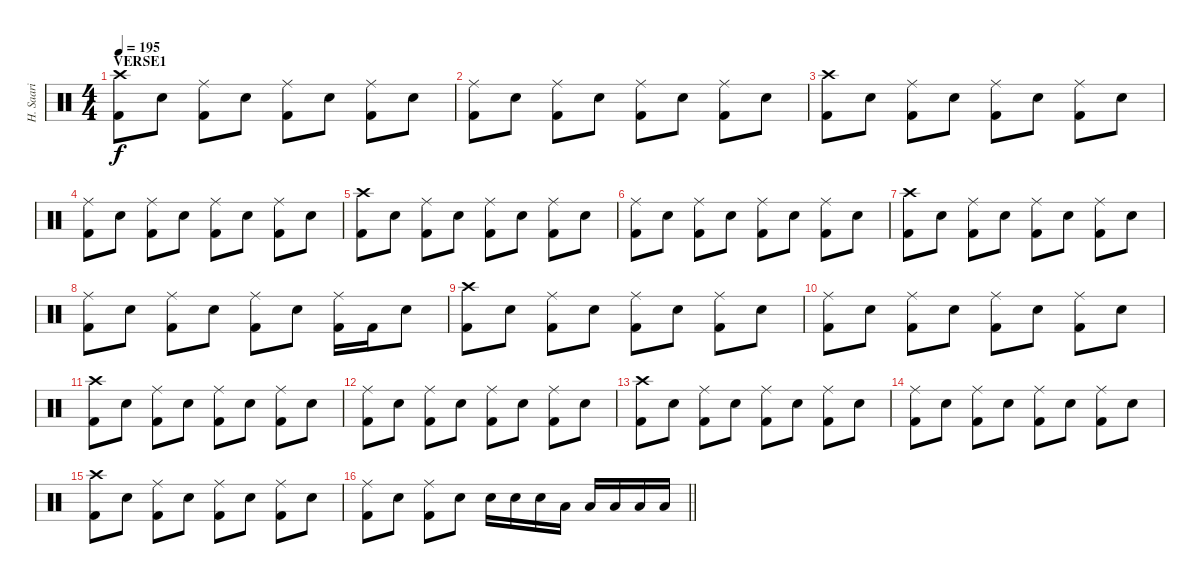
\track ("H. Saari" "H. Saari") {instrument percussion}
\staff {score}
\articulation defaults
\ts (4 4)
\section ("" "VERSE1")
\tempo 195
\clef neutral
\ks c
("Crash high (hit)" "Kick (hit) 2").8{dy f} "Electric Snare (hit)".8 ("Ride (middle)" "Kick (hit) 2").8 "Electric Snare (hit)".8 ("Ride (middle)" "Kick (hit) 2").8 "Electric Snare (hit)".8 ("Ride (middle)" "Kick (hit) 2").8 "Electric Snare (hit)".8 |
("Ride (middle)" "Kick (hit) 2").8 "Electric Snare (hit)".8 ("Ride (middle)" "Kick (hit) 2").8 "Electric Snare (hit)".8 ("Ride (middle)" "Kick (hit) 2").8 "Electric Snare (hit)".8 ("Ride (middle)" "Kick (hit) 2").8 "Electric Snare (hit)".8 |
("Crash high (hit)" "Kick (hit) 2").8 "Electric Snare (hit)".8 ("Ride (middle)" "Kick (hit) 2").8 "Electric Snare (hit)".8 ("Ride (middle)" "Kick (hit) 2").8 "Electric Snare (hit)".8 ("Ride (middle)" "Kick (hit) 2").8 "Electric Snare (hit)".8 |
("Ride (middle)" "Kick (hit) 2").8 "Electric Snare (hit)".8 ("Ride (middle)" "Kick (hit) 2").8 "Electric Snare (hit)".8 ("Ride (middle)" "Kick (hit) 2").8 "Electric Snare (hit)".8 ("Ride (middle)" "Kick (hit) 2").8 "Electric Snare (hit)".8 |
("Crash high (hit)" "Kick (hit) 2").8 "Electric Snare (hit)".8 ("Ride (middle)" "Kick (hit) 2").8 "Electric Snare (hit)".8 ("Ride (middle)" "Kick (hit) 2").8 "Electric Snare (hit)".8 ("Ride (middle)" "Kick (hit) 2").8 "Electric Snare (hit)".8 |
("Ride (middle)" "Kick (hit) 2").8 "Electric Snare (hit)".8 ("Ride (middle)" "Kick (hit) 2").8 "Electric Snare (hit)".8 ("Ride (middle)" "Kick (hit) 2").8 "Electric Snare (hit)".8 ("Ride (middle)" "Kick (hit) 2").8 "Electric Snare (hit)".8 |
("Crash high (hit)" "Kick (hit) 2").8 "Electric Snare (hit)".8 ("Ride (middle)" "Kick (hit) 2").8 "Electric Snare (hit)".8 ("Ride (middle)" "Kick (hit) 2").8 "Electric Snare (hit)".8 ("Ride (middle)" "Kick (hit) 2").8 "Electric Snare (hit)".8 |
("Ride (middle)" "Kick (hit) 2").8 "Electric Snare (hit)".8 ("Ride (middle)" "Kick (hit) 2").8 "Electric Snare (hit)".8 ("Ride (middle)" "Kick (hit) 2").8 "Electric Snare (hit)".8 ("Ride (middle)" "Kick (hit) 2").16 "Kick (hit) 2".16 "Electric Snare (hit)".8 |
("Crash high (hit)" "Kick (hit) 2").8 "Electric Snare (hit)".8 ("Ride (middle)" "Kick (hit) 2").8 "Electric Snare (hit)".8 ("Ride (middle)" "Kick (hit) 2").8 "Electric Snare (hit)".8 ("Ride (middle)" "Kick (hit) 2").8 "Electric Snare (hit)".8 |
("Ride (middle)" "Kick (hit) 2").8 "Electric Snare (hit)".8 ("Ride (middle)" "Kick (hit) 2").8 "Electric Snare (hit)".8 ("Ride (middle)" "Kick (hit) 2").8 "Electric Snare (hit)".8 ("Ride (middle)" "Kick (hit) 2").8 "Electric Snare (hit)".8 |
("Crash high (hit)" "Kick (hit) 2").8 "Electric Snare (hit)".8 ("Ride (middle)" "Kick (hit) 2").8 "Electric Snare (hit)".8 ("Ride (middle)" "Kick (hit) 2").8 "Electric Snare (hit)".8 ("Ride (middle)" "Kick (hit) 2").8 "Electric Snare (hit)".8 |
("Ride (middle)" "Kick (hit) 2").8 "Electric Snare (hit)".8 ("Ride (middle)" "Kick (hit) 2").8 "Electric Snare (hit)".8 ("Ride (middle)" "Kick (hit) 2").8 "Electric Snare (hit)".8 ("Ride (middle)" "Kick (hit) 2").8 "Electric Snare (hit)".8 |
("Crash high (hit)" "Kick (hit) 2").8 "Electric Snare (hit)".8 ("Ride (middle)" "Kick (hit) 2").8 "Electric Snare (hit)".8 ("Ride (middle)" "Kick (hit) 2").8 "Electric Snare (hit)".8 ("Ride (middle)" "Kick (hit) 2").8 "Electric Snare (hit)".8 |
("Ride (middle)" "Kick (hit) 2").8 "Electric Snare (hit)".8 ("Ride (middle)" "Kick (hit) 2").8 "Electric Snare (hit)".8 ("Ride (middle)" "Kick (hit) 2").8 "Electric Snare (hit)".8 ("Ride (middle)" "Kick (hit) 2").8 "Electric Snare (hit)".8 |
("Crash high (hit)" "Kick (hit) 2").8 "Electric Snare (hit)".8 ("Ride (middle)" "Kick (hit) 2").8 "Electric Snare (hit)".8 ("Ride (middle)" "Kick (hit) 2").8 "Electric Snare (hit)".8 ("Ride (middle)" "Kick (hit) 2").8 "Electric Snare (hit)".8 |
\barLineRight lightlight
("Ride (middle)" "Kick (hit) 2").8 "Electric Snare (hit)".8 ("Ride (middle)" "Kick (hit) 2").8 "Electric Snare (hit)".8 "Electric Snare (hit)".16 "Electric Snare (hit)".16 "Electric Snare (hit)".16 "Low Tom (hit)".16 "Low Tom (hit)".16 "Low Tom (hit)".16 "Low Tom (hit)".16 "Low Tom (hit)".16
